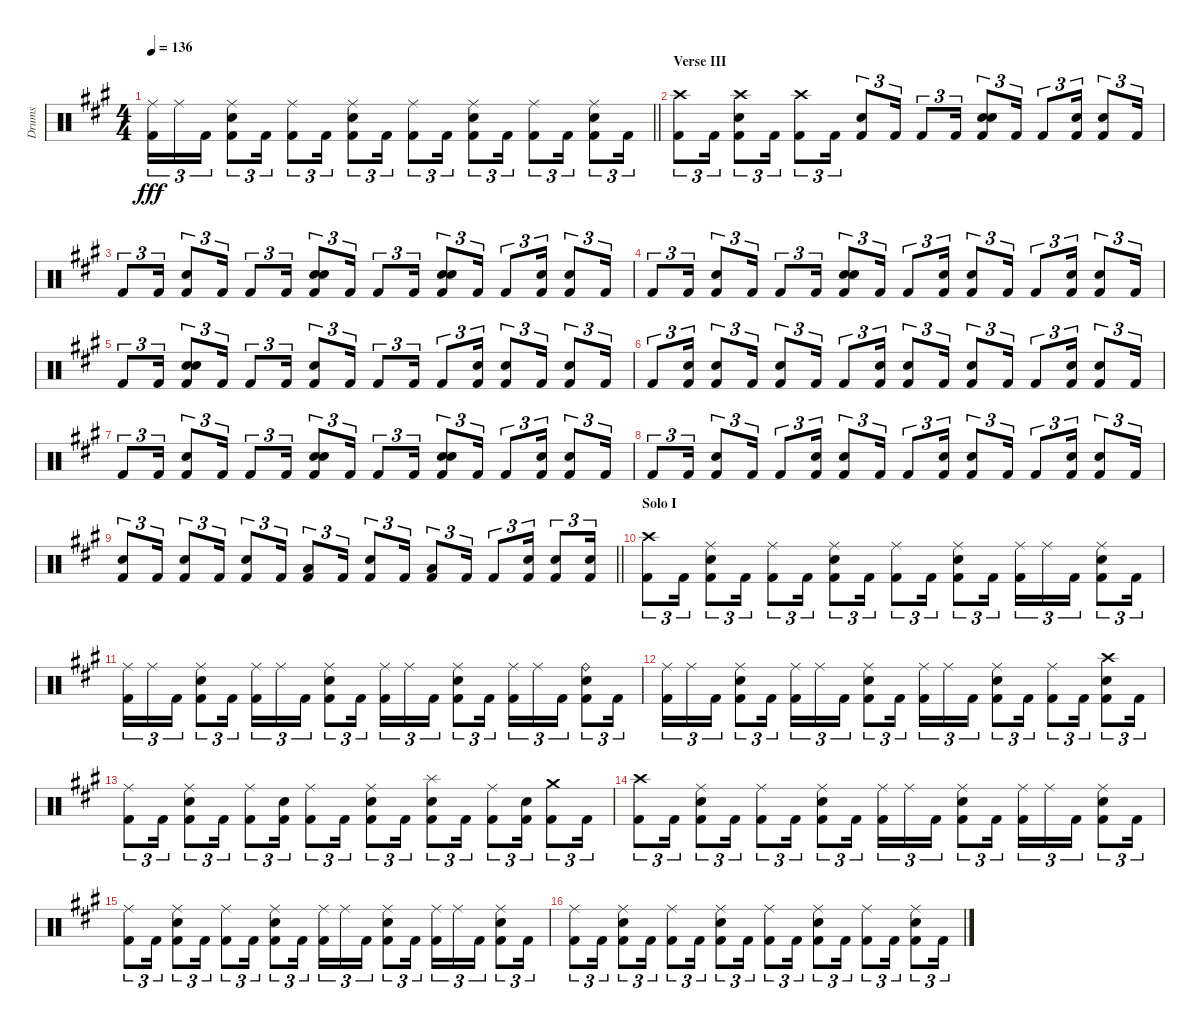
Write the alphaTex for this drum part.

\track ("Drums" "Drums") {instrument percussion}
\staff {score}
\articulation defaults
\ts (4 4)
\tempo 136
\clef neutral
\barLineRight lightlight
\ks a
("Ride (middle)" "Kick (hit) 2").16{tu (3 2) dy fff} "Ride (middle)".16{tu (3 2)} "Kick (hit) 2".16{tu (3 2)} ("Ride (middle)" "Snare (hit) 2" "Kick (hit) 2").8{tu (3 2)} "Kick (hit) 2".16{tu (3 2)} ("Ride (middle)" "Kick (hit) 2").8{tu (3 2)} "Kick (hit) 2".16{tu (3 2)} ("Ride (middle)" "Snare (hit) 2" "Kick (hit) 2").8{tu (3 2)} "Kick (hit) 2".16{tu (3 2)} ("Ride (middle)" "Kick (hit) 2").8{tu (3 2)} "Kick (hit) 2".16{tu (3 2)} ("Ride (middle)" "Snare (hit) 2" "Kick (hit) 2").8{tu (3 2)} "Kick (hit) 2".16{tu (3 2)} ("Ride (middle)" "Kick (hit) 2").8{tu (3 2)} "Kick (hit) 2".16{tu (3 2)} ("Ride (middle)" "Snare (hit) 2" "Kick (hit) 2").8{tu (3 2)} "Kick (hit) 2".16{tu (3 2)} |
\section ("" "Verse III")
("Crash high (hit)" "Kick (hit) 2").8{tu (3 2)} "Kick (hit) 2".16{tu (3 2)} ("Crash high (hit)" "Snare (hit) 2" "Kick (hit) 2").8{tu (3 2)} "Kick (hit) 2".16{tu (3 2)} ("Crash high (hit)" "Kick (hit) 2").8{tu (3 2)} "Kick (hit) 2".16{tu (3 2)} ("Snare (hit) 2" "Kick (hit) 2").8{tu (3 2)} "Kick (hit) 2".16{tu (3 2)} "Kick (hit) 2".8{tu (3 2)} "Kick (hit) 2".16{tu (3 2)} ("Snare (hit) 2" "Snare (hit) 2" "Kick (hit) 2").8{tu (3 2)} "Kick (hit) 2".16{tu (3 2)} "Kick (hit) 2".8{tu (3 2)} ("Snare (hit) 2" "Kick (hit) 2").16{tu (3 2)} ("Snare (hit) 2" "Kick (hit) 2").8{tu (3 2)} "Kick (hit) 2".16{tu (3 2)} |
"Kick (hit) 2".8{tu (3 2)} "Kick (hit) 2".16{tu (3 2)} ("Snare (hit) 2" "Kick (hit) 2").8{tu (3 2)} "Kick (hit) 2".16{tu (3 2)} "Kick (hit) 2".8{tu (3 2)} "Kick (hit) 2".16{tu (3 2)} ("Snare (hit) 2" "Snare (hit) 2" "Kick (hit) 2").8{tu (3 2)} "Kick (hit) 2".16{tu (3 2)} "Kick (hit) 2".8{tu (3 2)} "Kick (hit) 2".16{tu (3 2)} ("Snare (hit) 2" "Snare (hit) 2" "Kick (hit) 2").8{tu (3 2)} "Kick (hit) 2".16{tu (3 2)} "Kick (hit) 2".8{tu (3 2)} ("Snare (hit) 2" "Kick (hit) 2").16{tu (3 2)} ("Snare (hit) 2" "Kick (hit) 2").8{tu (3 2)} "Kick (hit) 2".16{tu (3 2)} |
"Kick (hit) 2".8{tu (3 2)} "Kick (hit) 2".16{tu (3 2)} ("Snare (hit) 2" "Kick (hit) 2").8{tu (3 2)} "Kick (hit) 2".16{tu (3 2)} "Kick (hit) 2".8{tu (3 2)} "Kick (hit) 2".16{tu (3 2)} ("Snare (hit) 2" "Snare (hit) 2" "Kick (hit) 2").8{tu (3 2)} "Kick (hit) 2".16{tu (3 2)} "Kick (hit) 2".8{tu (3 2)} ("Snare (hit) 2" "Kick (hit) 2").16{tu (3 2)} ("Snare (hit) 2" "Kick (hit) 2").8{tu (3 2)} "Kick (hit) 2".16{tu (3 2)} "Kick (hit) 2".8{tu (3 2)} ("Snare (hit) 2" "Kick (hit) 2").16{tu (3 2)} ("Snare (hit) 2" "Kick (hit) 2").8{tu (3 2)} "Kick (hit) 2".16{tu (3 2)} |
"Kick (hit) 2".8{tu (3 2)} "Kick (hit) 2".16{tu (3 2)} ("Snare (hit) 2" "Snare (hit) 2" "Kick (hit) 2").8{tu (3 2)} "Kick (hit) 2".16{tu (3 2)} "Kick (hit) 2".8{tu (3 2)} "Kick (hit) 2".16{tu (3 2)} ("Snare (hit) 2" "Kick (hit) 2").8{tu (3 2)} "Kick (hit) 2".16{tu (3 2)} "Kick (hit) 2".8{tu (3 2)} "Kick (hit) 2".16{tu (3 2)} "Kick (hit) 2".8{tu (3 2)} ("Snare (hit) 2" "Kick (hit) 2").16{tu (3 2)} ("Snare (hit) 2" "Kick (hit) 2").8{tu (3 2)} "Kick (hit) 2".16{tu (3 2)} ("Snare (hit) 2" "Kick (hit) 2").8{tu (3 2)} "Kick (hit) 2".16{tu (3 2)} |
"Kick (hit) 2".8{tu (3 2)} ("Snare (hit) 2" "Kick (hit) 2").16{tu (3 2)} ("Snare (hit) 2" "Kick (hit) 2").8{tu (3 2)} "Kick (hit) 2".16{tu (3 2)} ("Snare (hit) 2" "Kick (hit) 2").8{tu (3 2)} "Kick (hit) 2".16{tu (3 2)} "Kick (hit) 2".8{tu (3 2)} ("Snare (hit) 2" "Kick (hit) 2").16{tu (3 2)} ("Snare (hit) 2" "Kick (hit) 2").8{tu (3 2)} "Kick (hit) 2".16{tu (3 2)} ("Snare (hit) 2" "Kick (hit) 2").8{tu (3 2)} "Kick (hit) 2".16{tu (3 2)} "Kick (hit) 2".8{tu (3 2)} ("Snare (hit) 2" "Kick (hit) 2").16{tu (3 2)} ("Snare (hit) 2" "Kick (hit) 2").8{tu (3 2)} "Kick (hit) 2".16{tu (3 2)} |
"Kick (hit) 2".8{tu (3 2)} "Kick (hit) 2".16{tu (3 2)} ("Snare (hit) 2" "Kick (hit) 2").8{tu (3 2)} "Kick (hit) 2".16{tu (3 2)} "Kick (hit) 2".8{tu (3 2)} "Kick (hit) 2".16{tu (3 2)} ("Snare (hit) 2" "Snare (hit) 2" "Kick (hit) 2").8{tu (3 2)} "Kick (hit) 2".16{tu (3 2)} "Kick (hit) 2".8{tu (3 2)} "Kick (hit) 2".16{tu (3 2)} ("Snare (hit) 2" "Snare (hit) 2" "Kick (hit) 2").8{tu (3 2)} "Kick (hit) 2".16{tu (3 2)} "Kick (hit) 2".8{tu (3 2)} ("Snare (hit) 2" "Kick (hit) 2").16{tu (3 2)} ("Snare (hit) 2" "Kick (hit) 2").8{tu (3 2)} "Kick (hit) 2".16{tu (3 2)} |
"Kick (hit) 2".8{tu (3 2)} "Kick (hit) 2".16{tu (3 2)} ("Snare (hit) 2" "Kick (hit) 2").8{tu (3 2)} "Kick (hit) 2".16{tu (3 2)} "Kick (hit) 2".8{tu (3 2)} ("Snare (hit) 2" "Kick (hit) 2").16{tu (3 2)} ("Snare (hit) 2" "Kick (hit) 2").8{tu (3 2)} "Kick (hit) 2".16{tu (3 2)} "Kick (hit) 2".8{tu (3 2)} ("Snare (hit) 2" "Kick (hit) 2").16{tu (3 2)} ("Snare (hit) 2" "Kick (hit) 2").8{tu (3 2)} "Kick (hit) 2".16{tu (3 2)} "Kick (hit) 2".8{tu (3 2)} ("Snare (hit) 2" "Kick (hit) 2").16{tu (3 2)} ("Snare (hit) 2" "Kick (hit) 2").8{tu (3 2)} "Kick (hit) 2".16{tu (3 2)} |
\barLineRight lightlight
("Snare (hit) 2" "Kick (hit) 2").8{tu (3 2)} "Kick (hit) 2".16{tu (3 2)} ("Snare (hit) 2" "Kick (hit) 2").8{tu (3 2)} "Kick (hit) 2".16{tu (3 2)} ("Snare (hit) 2" "Kick (hit) 2").8{tu (3 2)} "Kick (hit) 2".16{tu (3 2)} ("Low Tom (hit)" "Kick (hit) 2").8{tu (3 2)} "Kick (hit) 2".16{tu (3 2)} ("Snare (hit) 2" "Kick (hit) 2").8{tu (3 2)} "Kick (hit) 2".16{tu (3 2)} ("Low Tom (hit)" "Kick (hit) 2").8{tu (3 2)} "Kick (hit) 2".16{tu (3 2)} "Kick (hit) 2".8{tu (3 2)} ("Snare (hit) 2" "Kick (hit) 2").16{tu (3 2)} ("Snare (hit) 2" "Kick (hit) 2").8{tu (3 2)} ("Snare (hit) 2" "Kick (hit) 2").16{tu (3 2)} |
\section ("" "Solo I")
("Crash high (hit)" "Kick (hit) 2").8{tu (3 2)} "Kick (hit) 2".16{tu (3 2)} ("Ride (middle)" "Snare (hit) 2" "Kick (hit) 2").8{tu (3 2)} "Kick (hit) 2".16{tu (3 2)} ("Ride (middle)" "Kick (hit) 2").8{tu (3 2)} "Kick (hit) 2".16{tu (3 2)} ("Ride (middle)" "Snare (hit) 2" "Kick (hit) 2").8{tu (3 2)} "Kick (hit) 2".16{tu (3 2)} ("Ride (middle)" "Kick (hit) 2").8{tu (3 2)} "Kick (hit) 2".16{tu (3 2)} ("Ride (middle)" "Snare (hit) 2" "Kick (hit) 2").8{tu (3 2)} "Kick (hit) 2".16{tu (3 2)} ("Ride (middle)" "Kick (hit) 2").16{tu (3 2)} "Ride (middle)".16{tu (3 2)} "Kick (hit) 2".16{tu (3 2)} ("Ride (middle)" "Snare (hit) 2" "Kick (hit) 2").8{tu (3 2)} "Kick (hit) 2".16{tu (3 2)} |
("Ride (middle)" "Kick (hit) 2").16{tu (3 2)} "Ride (middle)".16{tu (3 2)} "Kick (hit) 2".16{tu (3 2)} ("Ride (middle)" "Snare (hit) 2" "Kick (hit) 2").8{tu (3 2)} "Kick (hit) 2".16{tu (3 2)} ("Ride (middle)" "Kick (hit) 2").16{tu (3 2)} "Ride (middle)".16{tu (3 2)} "Kick (hit) 2".16{tu (3 2)} ("Ride (middle)" "Snare (hit) 2" "Kick (hit) 2").8{tu (3 2)} "Kick (hit) 2".16{tu (3 2)} ("Ride (middle)" "Kick (hit) 2").16{tu (3 2)} "Ride (middle)".16{tu (3 2)} "Kick (hit) 2".16{tu (3 2)} ("Ride (middle)" "Snare (hit) 2" "Kick (hit) 2").8{tu (3 2)} "Kick (hit) 2".16{tu (3 2)} ("Ride (middle)" "Kick (hit) 2").16{tu (3 2)} "Ride (middle)".16{tu (3 2)} "Kick (hit) 2".16{tu (3 2)} ("Ride (bell)" "Snare (hit) 2" "Kick (hit) 2").8{tu (3 2)} "Kick (hit) 2".16{tu (3 2)} |
("Ride (middle)" "Kick (hit) 2").16{tu (3 2)} "Ride (middle)".16{tu (3 2)} "Kick (hit) 2".16{tu (3 2)} ("Ride (middle)" "Snare (hit) 2" "Kick (hit) 2").8{tu (3 2)} "Kick (hit) 2".16{tu (3 2)} ("Ride (middle)" "Kick (hit) 2").16{tu (3 2)} "Ride (middle)".16{tu (3 2)} "Kick (hit) 2".16{tu (3 2)} ("Ride (middle)" "Snare (hit) 2" "Kick (hit) 2").8{tu (3 2)} "Kick (hit) 2".16{tu (3 2)} ("Ride (middle)" "Kick (hit) 2").16{tu (3 2)} "Ride (middle)".16{tu (3 2)} "Kick (hit) 2".16{tu (3 2)} ("Ride (middle)" "Snare (hit) 2" "Kick (hit) 2").8{tu (3 2)} "Kick (hit) 2".16{tu (3 2)} ("Ride (middle)" "Kick (hit) 2").8{tu (3 2)} "Kick (hit) 2".16{tu (3 2)} ("Crash high (hit)" "Snare (hit) 2" "Kick (hit) 2").8{tu (3 2)} "Kick (hit) 2".16{tu (3 2)} |
("Ride (middle)" "Kick (hit) 2").8{tu (3 2)} "Kick (hit) 2".16{tu (3 2)} ("Ride (middle)" "Snare (hit) 2" "Kick (hit) 2").8{tu (3 2)} "Kick (hit) 2".16{tu (3 2)} ("Ride (middle)" "Kick (hit) 2").8{tu (3 2)} ("Snare (hit) 2" "Kick (hit) 2").16{tu (3 2)} ("Ride (middle)" "Kick (hit) 2").8{tu (3 2)} "Kick (hit) 2".16{tu (3 2)} ("Ride (middle)" "Snare (hit) 2" "Kick (hit) 2").8{tu (3 2)} "Kick (hit) 2".16{tu (3 2)} ("Splash (hit)" "Snare (hit) 2" "Kick (hit) 2").8{tu (3 2)} "Kick (hit) 2".16{tu (3 2)} ("Ride (middle)" "Kick (hit) 2").8{tu (3 2)} ("Snare (hit) 2" "Kick (hit) 2").16{tu (3 2)} ("Crash medium (hit)" "Kick (hit) 2").8{tu (3 2)} "Kick (hit) 2".16{tu (3 2)} |
("Crash high (hit)" "Kick (hit) 2").8{tu (3 2)} "Kick (hit) 2".16{tu (3 2)} ("Ride (middle)" "Snare (hit) 2" "Kick (hit) 2").8{tu (3 2)} "Kick (hit) 2".16{tu (3 2)} ("Ride (middle)" "Kick (hit) 2").8{tu (3 2)} "Kick (hit) 2".16{tu (3 2)} ("Ride (middle)" "Snare (hit) 2" "Kick (hit) 2").8{tu (3 2)} "Kick (hit) 2".16{tu (3 2)} ("Ride (middle)" "Kick (hit) 2").16{tu (3 2)} "Ride (middle)".16{tu (3 2)} "Kick (hit) 2".16{tu (3 2)} ("Ride (middle)" "Snare (hit) 2" "Kick (hit) 2").8{tu (3 2)} "Kick (hit) 2".16{tu (3 2)} ("Ride (middle)" "Kick (hit) 2").16{tu (3 2)} "Ride (middle)".16{tu (3 2)} "Kick (hit) 2".16{tu (3 2)} ("Ride (middle)" "Snare (hit) 2" "Kick (hit) 2").8{tu (3 2)} "Kick (hit) 2".16{tu (3 2)} |
("Ride (middle)" "Kick (hit) 2").8{tu (3 2)} "Kick (hit) 2".16{tu (3 2)} ("Ride (middle)" "Snare (hit) 2" "Kick (hit) 2").8{tu (3 2)} "Kick (hit) 2".16{tu (3 2)} ("Ride (middle)" "Kick (hit) 2").8{tu (3 2)} "Kick (hit) 2".16{tu (3 2)} ("Ride (middle)" "Snare (hit) 2" "Kick (hit) 2").8{tu (3 2)} "Kick (hit) 2".16{tu (3 2)} ("Ride (middle)" "Kick (hit) 2").16{tu (3 2)} "Ride (middle)".16{tu (3 2)} "Kick (hit) 2".16{tu (3 2)} ("Ride (middle)" "Snare (hit) 2" "Kick (hit) 2").8{tu (3 2)} "Kick (hit) 2".16{tu (3 2)} ("Ride (middle)" "Kick (hit) 2").16{tu (3 2)} "Ride (middle)".16{tu (3 2)} "Kick (hit) 2".16{tu (3 2)} ("Ride (middle)" "Snare (hit) 2" "Kick (hit) 2").8{tu (3 2)} "Kick (hit) 2".16{tu (3 2)} |
("Ride (middle)" "Kick (hit) 2").8{tu (3 2)} "Kick (hit) 2".16{tu (3 2)} ("Ride (middle)" "Snare (hit) 2" "Kick (hit) 2").8{tu (3 2)} "Kick (hit) 2".16{tu (3 2)} ("Ride (middle)" "Kick (hit) 2").8{tu (3 2)} "Kick (hit) 2".16{tu (3 2)} ("Ride (middle)" "Snare (hit) 2" "Kick (hit) 2").8{tu (3 2)} "Kick (hit) 2".16{tu (3 2)} ("Ride (middle)" "Kick (hit) 2").8{tu (3 2)} "Kick (hit) 2".16{tu (3 2)} ("Ride (middle)" "Snare (hit) 2" "Kick (hit) 2").8{tu (3 2)} "Kick (hit) 2".16{tu (3 2)} ("Ride (middle)" "Kick (hit) 2").8{tu (3 2)} "Kick (hit) 2".16{tu (3 2)} ("Ride (middle)" "Snare (hit) 2" "Kick (hit) 2").8{tu (3 2)} "Kick (hit) 2".16{tu (3 2)}
